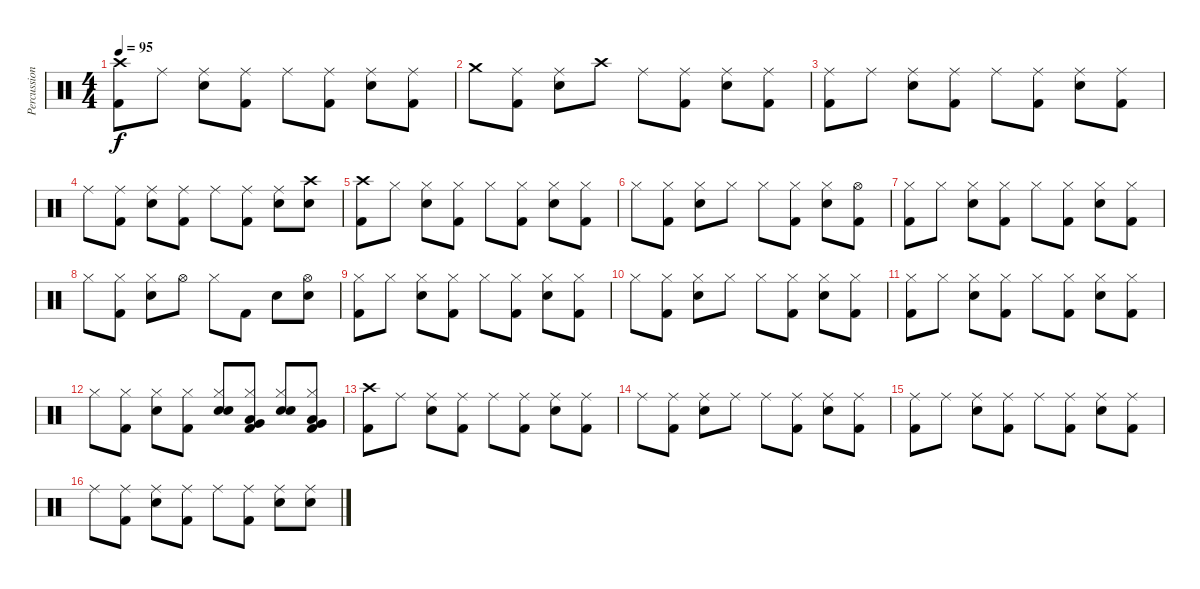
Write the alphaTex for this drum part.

\track ("Percussion" "Percussion") {instrument percussion}
\staff {score}
\articulation defaults
\ts (4 4)
\tempo 95
\clef neutral
\ks c
("Crash high (hit)" "Kick (hit) 2").8{dy f} "Ride (middle)".8 ("Ride (middle)" "Snare (hit) 2").8 ("Ride (middle)" "Kick (hit) 2").8 "Ride (middle)".8 ("Ride (middle)" "Kick (hit) 2").8 ("Ride (middle)" "Snare (hit) 2").8 ("Ride (middle)" "Kick (hit) 2").8 |
"Crash medium (hit)".8 ("Ride (middle)" "Kick (hit) 2").8 ("Ride (middle)" "Snare (hit) 2").8 "Crash high (hit)".8 "Ride (middle)".8 ("Ride (middle)" "Kick (hit) 2").8 ("Ride (middle)" "Snare (hit) 2").8 ("Ride (middle)" "Kick (hit) 2").8 |
("Ride (middle)" "Kick (hit) 2").8 "Ride (middle)".8 ("Ride (middle)" "Snare (hit) 2").8 ("Ride (middle)" "Kick (hit) 2").8 "Ride (middle)".8 ("Ride (middle)" "Kick (hit) 2").8 ("Ride (middle)" "Snare (hit) 2").8 ("Ride (middle)" "Kick (hit) 2").8 |
"Ride (middle)".8 ("Ride (middle)" "Kick (hit) 2").8 ("Ride (middle)" "Snare (hit) 2").8 ("Ride (middle)" "Kick (hit) 2").8 "Ride (middle)".8 ("Ride (middle)" "Kick (hit) 2").8 ("Ride (middle)" "Snare (hit) 2").8 ("Crash high (hit)" "Snare (hit) 2").8 |
("Crash high (hit)" "Kick (hit) 2").8 "Hi-Hat (closed)".8 ("Hi-Hat (closed)" "Snare (hit) 2").8 ("Hi-Hat (closed)" "Kick (hit) 2").8 "Hi-Hat (closed)".8 ("Hi-Hat (closed)" "Kick (hit) 2").8 ("Hi-Hat (closed)" "Snare (hit) 2").8 ("Hi-Hat (closed)" "Kick (hit) 2").8 |
"Hi-Hat (closed)".8 ("Hi-Hat (closed)" "Kick (hit) 2").8 ("Hi-Hat (closed)" "Snare (hit) 2").8 "Hi-Hat (closed)".8 "Hi-Hat (closed)".8 ("Hi-Hat (closed)" "Kick (hit) 2").8 ("Hi-Hat (closed)" "Snare (hit) 2").8 ("Hi-Hat (open)" "Kick (hit) 2").8 |
("Hi-Hat (closed)" "Kick (hit) 2").8 "Hi-Hat (closed)".8 ("Hi-Hat (closed)" "Snare (hit) 2").8 ("Hi-Hat (closed)" "Kick (hit) 2").8 "Hi-Hat (closed)".8 ("Hi-Hat (closed)" "Kick (hit) 2").8 ("Hi-Hat (closed)" "Snare (hit) 2").8 ("Hi-Hat (closed)" "Kick (hit) 2").8 |
"Hi-Hat (closed)".8 ("Hi-Hat (closed)" "Kick (hit) 2").8 ("Hi-Hat (closed)" "Snare (hit) 2").8 "Hi-Hat (open)".8 "Hi-Hat (closed)".8 "Kick (hit) 2".8 "Snare (hit) 2".8 ("Hi-Hat (open)" "Snare (hit) 2").8 |
("Hi-Hat (closed)" "Kick (hit) 2").8 "Hi-Hat (closed)".8 ("Hi-Hat (closed)" "Snare (hit) 2").8 ("Hi-Hat (closed)" "Kick (hit) 2").8 "Hi-Hat (closed)".8 ("Hi-Hat (closed)" "Kick (hit) 2").8 ("Hi-Hat (closed)" "Snare (hit) 2").8 ("Hi-Hat (closed)" "Kick (hit) 2").8 |
"Hi-Hat (closed)".8 ("Hi-Hat (closed)" "Kick (hit) 2").8 ("Hi-Hat (closed)" "Snare (hit) 2").8 "Hi-Hat (closed)".8 "Hi-Hat (closed)".8 ("Hi-Hat (closed)" "Kick (hit) 2").8 ("Hi-Hat (closed)" "Snare (hit) 2").8 ("Hi-Hat (closed)" "Kick (hit) 2").8 |
("Hi-Hat (closed)" "Kick (hit) 2").8 "Hi-Hat (closed)".8 ("Hi-Hat (closed)" "Snare (hit) 2").8 ("Hi-Hat (closed)" "Kick (hit) 2").8 "Hi-Hat (closed)".8 ("Hi-Hat (closed)" "Kick (hit) 2").8 ("Hi-Hat (closed)" "Snare (hit) 2").8 ("Hi-Hat (closed)" "Kick (hit) 2").8 |
"Hi-Hat (closed)".8 ("Hi-Hat (closed)" "Kick (hit) 2").8 ("Hi-Hat (closed)" "Snare (hit) 2").8 ("Hi-Hat (closed)" "Kick (hit) 2").8 ("Hi-Hat (closed)" "Electric Snare (hit)" "Snare (hit) 2").8 ("Hi-Hat (closed)" "Low Floor Tom (hit)" "Very Low Tom (hit)" "Kick (hit) 2").8 ("Hi-Hat (closed)" "Electric Snare (hit)" "Snare (hit) 2").8 ("Hi-Hat (closed)" "Low Floor Tom (hit)" "Very Low Tom (hit)" "Kick (hit) 2").8 |
("Crash high (hit)" "Kick (hit) 2").8 "Ride (middle)".8 ("Ride (middle)" "Snare (hit) 2").8 ("Ride (middle)" "Kick (hit) 2").8 "Ride (middle)".8 ("Ride (middle)" "Kick (hit) 2").8 ("Ride (middle)" "Snare (hit) 2").8 ("Ride (middle)" "Kick (hit) 2").8 |
"Ride (middle)".8 ("Ride (middle)" "Kick (hit) 2").8 ("Ride (middle)" "Snare (hit) 2").8 "Ride (middle)".8 "Ride (middle)".8 ("Ride (middle)" "Kick (hit) 2").8 ("Ride (middle)" "Snare (hit) 2").8 ("Ride (middle)" "Kick (hit) 2").8 |
("Ride (middle)" "Kick (hit) 2").8 "Ride (middle)".8 ("Ride (middle)" "Snare (hit) 2").8 ("Ride (middle)" "Kick (hit) 2").8 "Ride (middle)".8 ("Ride (middle)" "Kick (hit) 2").8 ("Ride (middle)" "Snare (hit) 2").8 ("Ride (middle)" "Kick (hit) 2").8 |
"Ride (middle)".8 ("Ride (middle)" "Kick (hit) 2").8 ("Ride (middle)" "Snare (hit) 2").8 ("Ride (middle)" "Kick (hit) 2").8 "Ride (middle)".8 ("Ride (middle)" "Kick (hit) 2").8 ("Ride (middle)" "Snare (hit) 2").8 ("Ride (middle)" "Snare (hit) 2").8
